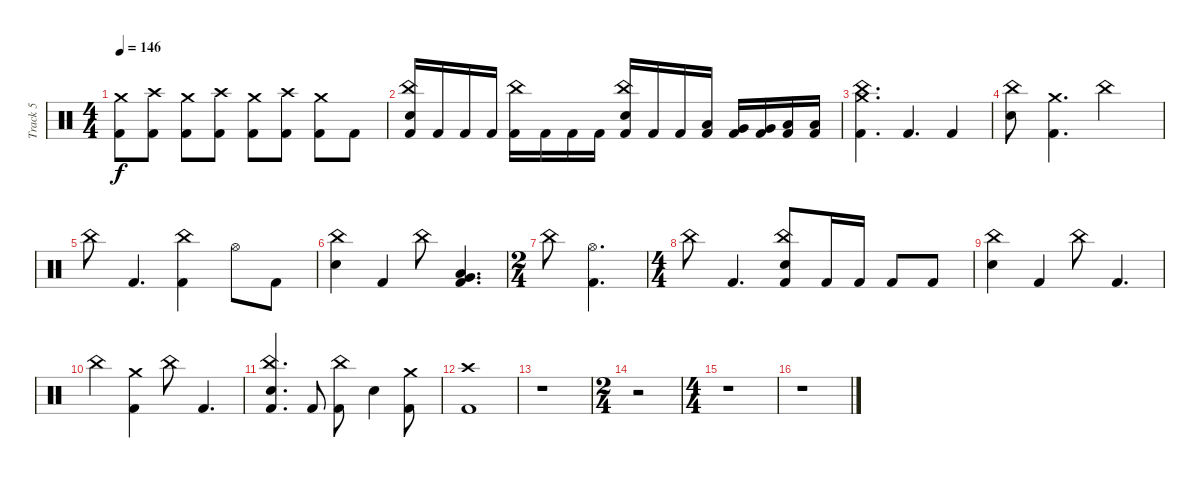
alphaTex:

\track ("Track 5" "Track 5") {instrument percussion}
\staff {score}
\articulation defaults
\ts (4 4)
\tempo 146
\clef neutral
\ks c
("Crash medium (hit)" "Kick (hit) 2").8{dy f} ("Crash high (hit)" "Kick (hit) 2").8 ("Crash medium (hit)" "Kick (hit) 2").8 ("Crash high (hit)" "Kick (hit) 2").8 ("Crash medium (hit)" "Kick (hit) 2").8 ("Crash high (hit)" "Kick (hit) 2").8 ("Crash medium (hit)" "Kick (hit) 2").8 "Kick (hit) 2".8 |
("China (hit)" "Electric Snare (hit)" "Kick (hit) 2").16 "Kick (hit) 2".16 "Kick (hit) 2".16 "Kick (hit) 2".16 ("China (hit)" "Kick (hit) 2").16 "Kick (hit) 2".16 "Kick (hit) 2".16 "Kick (hit) 2".16 ("China (hit)" "Electric Snare (hit)" "Kick (hit) 2").16 "Kick (hit) 2".16 "Kick (hit) 2".16 ("Low Tom (hit)" "Kick (hit) 2").16 ("Very Low Tom (hit)" "Kick (hit) 2").16 ("Very Low Tom (hit)" "Kick (hit) 2").16 ("Low Floor Tom (hit)" "Kick (hit) 2").16 ("Low Floor Tom (hit)" "Kick (hit) 2").16 |
("Crash medium (hit)" "China (hit)" "Kick (hit) 2").4{d} "Kick (hit) 2".4{d} "Kick (hit) 2".4 |
("China (hit)" "Electric Snare (hit)").8 ("Crash medium (hit)" "Kick (hit) 2").4{d} "China (hit)".2 |
"China (hit)".8 "Kick (hit) 2".4{d} ("China (hit)" "Kick (hit) 2").4 "Hi-Hat (open)".8 "Kick (hit) 2".8 |
("China (hit)" "Electric Snare (hit)").4 "Kick (hit) 2".4 "China (hit)".8 ("Very Low Tom (hit)" "Low Floor Tom (hit)" "Kick (hit) 2").4{d} |
\ts (2 4)
"China (hit)".8 ("Hi-Hat (open)" "Kick (hit) 2").4{d} |
\ts (4 4)
"China (hit)".8 "Kick (hit) 2".4{d} ("China (hit)" "Electric Snare (hit)" "Kick (hit) 2").8 "Kick (hit) 2".16 "Kick (hit) 2".16 "Kick (hit) 2".8 "Kick (hit) 2".8 |
("China (hit)" "Electric Snare (hit)").4 "Kick (hit) 2".4 "China (hit)".8 "Kick (hit) 2".4{d} |
"China (hit)".4 ("Crash medium (hit)" "Kick (hit) 2").4 "China (hit)".8 "Kick (hit) 2".4{d} |
("China (hit)" "Electric Snare (hit)" "Kick (hit) 2").4{d} "Kick (hit) 2".8 ("China (hit)" "Kick (hit) 2").8 "Electric Snare (hit)".4 ("Crash medium (hit)" "Kick (hit) 2").8 |
("Crash high (hit)" "Kick (hit) 2").1 |
r.1 |
\ts (2 4)
r.2 |
\ts (4 4)
r.1 |
r.1
